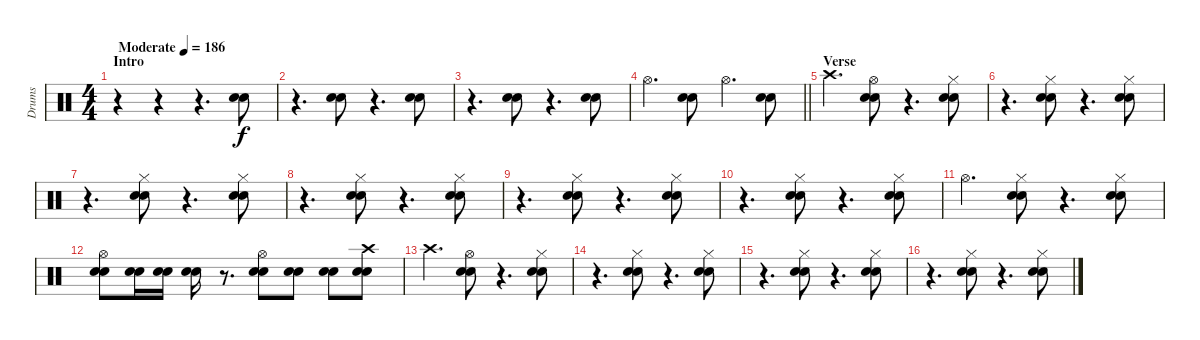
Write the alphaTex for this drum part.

\track ("Drums" "Drums") {instrument percussion}
\staff {score}
\articulation defaults
\ts (4 4)
\section ("" "Intro")
\tempo (186 "Moderate")
\clef neutral
\ks c
r.4{dy f} r.4 r.4{d} ("Snare (hit) 2" "Snare (hit) 2").8 |
r.4{d} ("Snare (hit) 2" "Snare (hit) 2").8 r.4{d} ("Snare (hit) 2" "Snare (hit) 2").8 |
r.4{d} ("Snare (hit) 2" "Snare (hit) 2").8 r.4{d} ("Snare (hit) 2" "Snare (hit) 2").8 |
\barLineRight lightlight "Hi-Hat (open)".4{d}
("Snare (hit) 2" "Snare (hit) 2").8 "Hi-Hat (open)".4{d} ("Snare (hit) 2" "Snare (hit) 2").8 |
\section ("" "Verse")
"Crash high (hit)".4{d volume 13} ("Hi-Hat (open)" "Snare (hit) 2" "Snare (hit) 2").8 r.4{d} ("Hi-Hat (closed)" "Snare (hit) 2" "Snare (hit) 2").8 |
r.4{d} ("Hi-Hat (closed)" "Snare (hit) 2" "Snare (hit) 2").8 r.4{d} ("Hi-Hat (closed)" "Snare (hit) 2" "Snare (hit) 2").8 |
r.4{d} ("Hi-Hat (closed)" "Snare (hit) 2" "Snare (hit) 2").8 r.4{d} ("Hi-Hat (closed)" "Snare (hit) 2" "Snare (hit) 2").8 |
r.4{d} ("Hi-Hat (closed)" "Snare (hit) 2" "Snare (hit) 2").8 r.4{d} ("Hi-Hat (closed)" "Snare (hit) 2" "Snare (hit) 2").8 |
r.4{d} ("Hi-Hat (closed)" "Snare (hit) 2" "Snare (hit) 2").8 r.4{d} ("Hi-Hat (closed)" "Snare (hit) 2" "Snare (hit) 2").8 |
r.4{d} ("Hi-Hat (closed)" "Snare (hit) 2" "Snare (hit) 2").8 r.4{d} ("Hi-Hat (closed)" "Snare (hit) 2" "Snare (hit) 2").8 |
"Hi-Hat (open)".4{d} ("Hi-Hat (closed)" "Snare (hit) 2" "Snare (hit) 2").8 r.4{d} ("Hi-Hat (closed)" "Snare (hit) 2" "Snare (hit) 2").8 |
("Hi-Hat (open)" "Snare (hit) 2" "Snare (hit) 2").8 ("Snare (hit) 2" "Snare (hit) 2").16 ("Snare (hit) 2" "Snare (hit) 2").16 ("Snare (hit) 2" "Snare (hit) 2").16 r.8{d} ("Hi-Hat (open)" "Snare (hit) 2" "Snare (hit) 2").8 ("Snare (hit) 2" "Snare (hit) 2").8 ("Snare (hit) 2" "Snare (hit) 2").8 ("Crash high (hit)" "Snare (hit) 2" "Snare (hit) 2").8 |
"Crash high (hit)".4{d volume 13} ("Hi-Hat (open)" "Snare (hit) 2" "Snare (hit) 2").8 r.4{d} ("Hi-Hat (closed)" "Snare (hit) 2" "Snare (hit) 2").8 |
r.4{d} ("Hi-Hat (closed)" "Snare (hit) 2" "Snare (hit) 2").8 r.4{d} ("Hi-Hat (closed)" "Snare (hit) 2" "Snare (hit) 2").8 |
r.4{d} ("Hi-Hat (closed)" "Snare (hit) 2" "Snare (hit) 2").8 r.4{d} ("Hi-Hat (closed)" "Snare (hit) 2" "Snare (hit) 2").8 |
r.4{d} ("Hi-Hat (closed)" "Snare (hit) 2" "Snare (hit) 2").8 r.4{d} ("Hi-Hat (closed)" "Snare (hit) 2" "Snare (hit) 2").8
